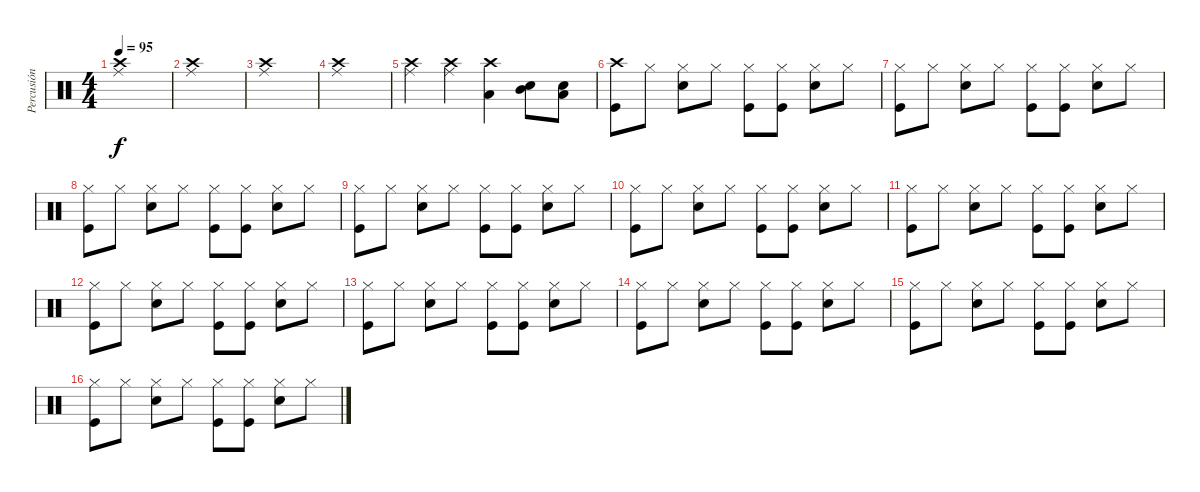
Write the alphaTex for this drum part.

\track ("Percusión" "Percusión") {instrument percussion}
\staff {score}
\articulation defaults
\ts (4 4)
\tempo 95
\clef neutral
\ks c
("Crash high (hit)" "Ride (middle)").1{dy f} |
("Crash high (hit)" "Ride (middle)").1 |
("Crash high (hit)" "Ride (middle)").1 |
("Crash high (hit)" "Ride (middle)").1 |
("Crash high (hit)" "Ride (middle)").4 ("Crash high (hit)" "Ride (middle)").4 ("Crash high (hit)" "Low Floor Tom (hit)").4 ("Snare (hit) 2" "Mid Tom (hit)").8 ("Snare (hit) 2" "Low Tom (hit)").8 |
("Crash high (hit)" "Kick (hit)").8 "Hi-Hat (closed)".8 ("Hi-Hat (closed)" "Snare (hit) 2").8 "Hi-Hat (closed)".8 ("Hi-Hat (closed)" "Kick (hit)").8 ("Hi-Hat (closed)" "Kick (hit)").8 ("Hi-Hat (closed)" "Snare (hit) 2").8 "Hi-Hat (closed)".8 |
("Hi-Hat (closed)" "Kick (hit)").8 "Hi-Hat (closed)".8 ("Hi-Hat (closed)" "Snare (hit) 2").8 "Hi-Hat (closed)".8 ("Hi-Hat (closed)" "Kick (hit)").8 ("Hi-Hat (closed)" "Kick (hit)").8 ("Hi-Hat (closed)" "Snare (hit) 2").8 "Hi-Hat (closed)".8 |
("Hi-Hat (closed)" "Kick (hit)").8 "Hi-Hat (closed)".8 ("Hi-Hat (closed)" "Snare (hit) 2").8 "Hi-Hat (closed)".8 ("Hi-Hat (closed)" "Kick (hit)").8 ("Hi-Hat (closed)" "Kick (hit)").8 ("Hi-Hat (closed)" "Snare (hit) 2").8 "Hi-Hat (closed)".8 |
("Hi-Hat (closed)" "Kick (hit)").8 "Hi-Hat (closed)".8 ("Hi-Hat (closed)" "Snare (hit) 2").8 "Hi-Hat (closed)".8 ("Hi-Hat (closed)" "Kick (hit)").8 ("Hi-Hat (closed)" "Kick (hit)").8 ("Hi-Hat (closed)" "Snare (hit) 2").8 "Hi-Hat (closed)".8 |
("Hi-Hat (closed)" "Kick (hit)").8 "Hi-Hat (closed)".8 ("Hi-Hat (closed)" "Snare (hit) 2").8 "Hi-Hat (closed)".8 ("Hi-Hat (closed)" "Kick (hit)").8 ("Hi-Hat (closed)" "Kick (hit)").8 ("Hi-Hat (closed)" "Snare (hit) 2").8 "Hi-Hat (closed)".8 |
("Hi-Hat (closed)" "Kick (hit)").8 "Hi-Hat (closed)".8 ("Hi-Hat (closed)" "Snare (hit) 2").8 "Hi-Hat (closed)".8 ("Hi-Hat (closed)" "Kick (hit)").8 ("Hi-Hat (closed)" "Kick (hit)").8 ("Hi-Hat (closed)" "Snare (hit) 2").8 "Hi-Hat (closed)".8 |
("Hi-Hat (closed)" "Kick (hit)").8 "Hi-Hat (closed)".8 ("Hi-Hat (closed)" "Snare (hit) 2").8 "Hi-Hat (closed)".8 ("Hi-Hat (closed)" "Kick (hit)").8 ("Hi-Hat (closed)" "Kick (hit)").8 ("Hi-Hat (closed)" "Snare (hit) 2").8 "Hi-Hat (closed)".8 |
("Hi-Hat (closed)" "Kick (hit)").8 "Hi-Hat (closed)".8 ("Hi-Hat (closed)" "Snare (hit) 2").8 "Hi-Hat (closed)".8 ("Hi-Hat (closed)" "Kick (hit)").8 ("Hi-Hat (closed)" "Kick (hit)").8 ("Hi-Hat (closed)" "Snare (hit) 2").8 "Hi-Hat (closed)".8 |
("Hi-Hat (closed)" "Kick (hit)").8 "Hi-Hat (closed)".8 ("Hi-Hat (closed)" "Snare (hit) 2").8 "Hi-Hat (closed)".8 ("Hi-Hat (closed)" "Kick (hit)").8 ("Hi-Hat (closed)" "Kick (hit)").8 ("Hi-Hat (closed)" "Snare (hit) 2").8 "Hi-Hat (closed)".8 |
("Hi-Hat (closed)" "Kick (hit)").8 "Hi-Hat (closed)".8 ("Hi-Hat (closed)" "Snare (hit) 2").8 "Hi-Hat (closed)".8 ("Hi-Hat (closed)" "Kick (hit)").8 ("Hi-Hat (closed)" "Kick (hit)").8 ("Hi-Hat (closed)" "Snare (hit) 2").8 "Hi-Hat (closed)".8 |
("Hi-Hat (closed)" "Kick (hit)").8 "Hi-Hat (closed)".8 ("Hi-Hat (closed)" "Snare (hit) 2").8 "Hi-Hat (closed)".8 ("Hi-Hat (closed)" "Kick (hit)").8 ("Hi-Hat (closed)" "Kick (hit)").8 ("Hi-Hat (closed)" "Snare (hit) 2").8 "Hi-Hat (closed)".8
